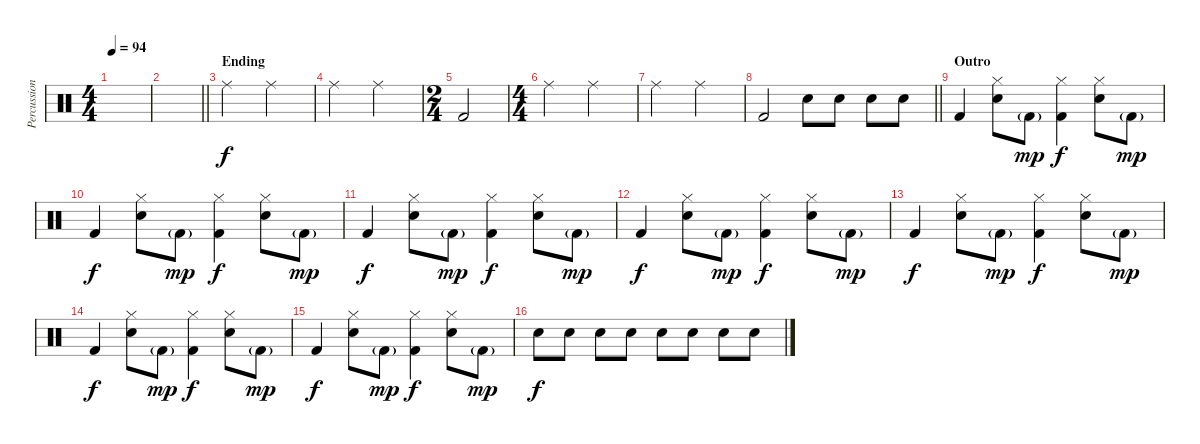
\track ("Percussion" "Percussion") {instrument percussion}
\staff {score}
\articulation defaults
\ts (4 4)
\tempo 94
\clef neutral
\ks c
|
\barLineRight lightlight
|
\section ("" "Ending")
"Ride (middle)".2 "Ride (middle)".2 |
"Ride (middle)".2 "Ride (middle)".2 |
\ts (2 4)
"Kick (hit) 2".2 |
\ts (4 4)
"Ride (middle)".2 "Ride (middle)".2 |
"Ride (middle)".2 "Ride (middle)".2 |
\barLineRight lightlight "Kick (hit) 2".2 "Snare (hit) 2".8 "Snare (hit) 2".8 "Snare (hit) 2".8 "Snare (hit) 2".8
|
\section ("" "Outro")
"Kick (hit) 2".4 ("Hi-Hat (closed)" "Snare (hit) 2").8 "Kick (hit) 2"{g}.8{dy mp} ("Hi-Hat (closed)" "Kick (hit) 2").4{dy f} ("Hi-Hat (closed)" "Snare (hit) 2").8 "Kick (hit) 2"{g}.8{dy mp} |
"Kick (hit) 2".4{dy f} ("Hi-Hat (closed)" "Snare (hit) 2").8 "Kick (hit) 2"{g}.8{dy mp} ("Hi-Hat (closed)" "Kick (hit) 2").4{dy f} ("Hi-Hat (closed)" "Snare (hit) 2").8 "Kick (hit) 2"{g}.8{dy mp} |
"Kick (hit) 2".4{dy f} ("Hi-Hat (closed)" "Snare (hit) 2").8 "Kick (hit) 2"{g}.8{dy mp} ("Hi-Hat (closed)" "Kick (hit) 2").4{dy f} ("Hi-Hat (closed)" "Snare (hit) 2").8 "Kick (hit) 2"{g}.8{dy mp} |
"Kick (hit) 2".4{dy f} ("Hi-Hat (closed)" "Snare (hit) 2").8 "Kick (hit) 2"{g}.8{dy mp} ("Hi-Hat (closed)" "Kick (hit) 2").4{dy f} ("Hi-Hat (closed)" "Snare (hit) 2").8 "Kick (hit) 2"{g}.8{dy mp} |
"Kick (hit) 2".4{dy f} ("Hi-Hat (closed)" "Snare (hit) 2").8 "Kick (hit) 2"{g}.8{dy mp} ("Hi-Hat (closed)" "Kick (hit) 2").4{dy f} ("Hi-Hat (closed)" "Snare (hit) 2").8 "Kick (hit) 2"{g}.8{dy mp} |
"Kick (hit) 2".4{dy f} ("Hi-Hat (closed)" "Snare (hit) 2").8 "Kick (hit) 2"{g}.8{dy mp} ("Hi-Hat (closed)" "Kick (hit) 2").4{dy f} ("Hi-Hat (closed)" "Snare (hit) 2").8 "Kick (hit) 2"{g}.8{dy mp} |
"Kick (hit) 2".4{dy f} ("Hi-Hat (closed)" "Snare (hit) 2").8 "Kick (hit) 2"{g}.8{dy mp} ("Hi-Hat (closed)" "Kick (hit) 2").4{dy f} ("Hi-Hat (closed)" "Snare (hit) 2").8 "Kick (hit) 2"{g}.8{dy mp} |
"Snare (hit) 2".8{dy f} "Snare (hit) 2".8 "Snare (hit) 2".8 "Snare (hit) 2".8 "Snare (hit) 2".8 "Snare (hit) 2".8 "Snare (hit) 2".8 "Snare (hit) 2".8
